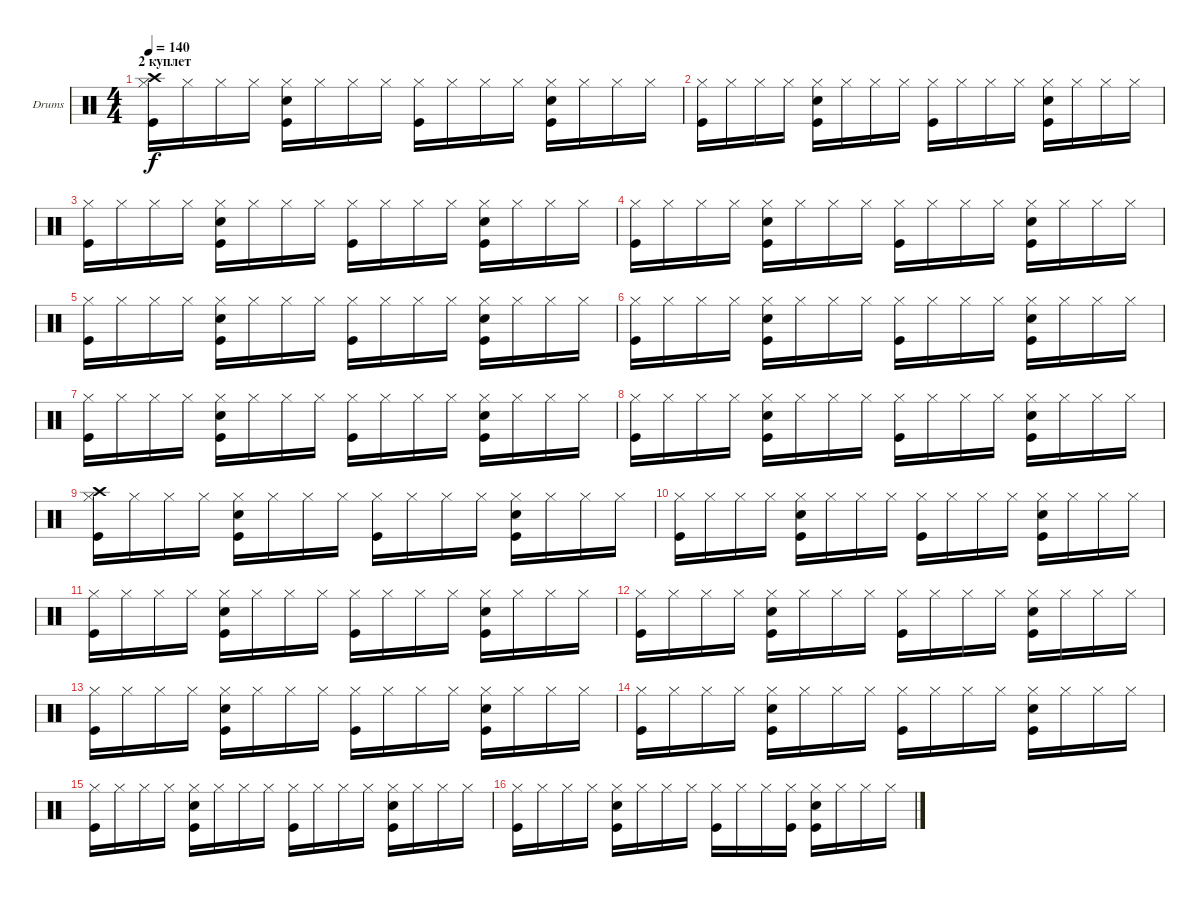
\defaultSystemsLayout 4
\bracketExtendMode groupsimilarinstruments
\firstSystemTrackNameOrientation horizontal
\otherSystemsTrackNameOrientation horizontal
\track ("Drumkit" "Drums") {instrument percussion}
\staff {score}
\articulation defaults
\ts (4 4)
\section ("" "2 куплет")
\tempo 140
\clef neutral
\ks c
("Hi-Hat (closed)" "Kick (hit)" "Crash high (hit)").16{dy f} "Hi-Hat (closed)".16 "Hi-Hat (closed)".16 "Hi-Hat (closed)".16 ("Hi-Hat (closed)" "Kick (hit)" "Snare (hit) 2").16 "Hi-Hat (closed)".16 "Hi-Hat (closed)".16 "Hi-Hat (closed)".16 ("Hi-Hat (closed)" "Kick (hit)").16 "Hi-Hat (closed)".16 "Hi-Hat (closed)".16 "Hi-Hat (closed)".16 ("Hi-Hat (closed)" "Kick (hit)" "Snare (hit) 2").16 "Hi-Hat (closed)".16 "Hi-Hat (closed)".16 "Hi-Hat (closed)".16 |
("Hi-Hat (closed)" "Kick (hit)").16 "Hi-Hat (closed)".16 "Hi-Hat (closed)".16 "Hi-Hat (closed)".16 ("Hi-Hat (closed)" "Kick (hit)" "Snare (hit) 2").16 "Hi-Hat (closed)".16 "Hi-Hat (closed)".16 "Hi-Hat (closed)".16 ("Hi-Hat (closed)" "Kick (hit)").16 "Hi-Hat (closed)".16 "Hi-Hat (closed)".16 "Hi-Hat (closed)".16 ("Hi-Hat (closed)" "Kick (hit)" "Snare (hit) 2").16 "Hi-Hat (closed)".16 "Hi-Hat (closed)".16 "Hi-Hat (closed)".16 |
("Hi-Hat (closed)" "Kick (hit)").16 "Hi-Hat (closed)".16 "Hi-Hat (closed)".16 "Hi-Hat (closed)".16 ("Hi-Hat (closed)" "Kick (hit)" "Snare (hit) 2").16 "Hi-Hat (closed)".16 "Hi-Hat (closed)".16 "Hi-Hat (closed)".16 ("Hi-Hat (closed)" "Kick (hit)").16 "Hi-Hat (closed)".16 "Hi-Hat (closed)".16 "Hi-Hat (closed)".16 ("Hi-Hat (closed)" "Kick (hit)" "Snare (hit) 2").16 "Hi-Hat (closed)".16 "Hi-Hat (closed)".16 "Hi-Hat (closed)".16 |
("Hi-Hat (closed)" "Kick (hit)").16 "Hi-Hat (closed)".16 "Hi-Hat (closed)".16 "Hi-Hat (closed)".16 ("Hi-Hat (closed)" "Kick (hit)" "Snare (hit) 2").16 "Hi-Hat (closed)".16 "Hi-Hat (closed)".16 "Hi-Hat (closed)".16 ("Hi-Hat (closed)" "Kick (hit)").16 "Hi-Hat (closed)".16 "Hi-Hat (closed)".16 "Hi-Hat (closed)".16 ("Hi-Hat (closed)" "Kick (hit)" "Snare (hit) 2").16 "Hi-Hat (closed)".16 "Hi-Hat (closed)".16 "Hi-Hat (closed)".16 |
("Hi-Hat (closed)" "Kick (hit)").16 "Hi-Hat (closed)".16 "Hi-Hat (closed)".16 "Hi-Hat (closed)".16 ("Hi-Hat (closed)" "Kick (hit)" "Snare (hit) 2").16 "Hi-Hat (closed)".16 "Hi-Hat (closed)".16 "Hi-Hat (closed)".16 ("Hi-Hat (closed)" "Kick (hit)").16 "Hi-Hat (closed)".16 "Hi-Hat (closed)".16 "Hi-Hat (closed)".16 ("Hi-Hat (closed)" "Kick (hit)" "Snare (hit) 2").16 "Hi-Hat (closed)".16 "Hi-Hat (closed)".16 "Hi-Hat (closed)".16 |
("Hi-Hat (closed)" "Kick (hit)").16 "Hi-Hat (closed)".16 "Hi-Hat (closed)".16 "Hi-Hat (closed)".16 ("Hi-Hat (closed)" "Kick (hit)" "Snare (hit) 2").16 "Hi-Hat (closed)".16 "Hi-Hat (closed)".16 "Hi-Hat (closed)".16 ("Hi-Hat (closed)" "Kick (hit)").16 "Hi-Hat (closed)".16 "Hi-Hat (closed)".16 "Hi-Hat (closed)".16 ("Hi-Hat (closed)" "Kick (hit)" "Snare (hit) 2").16 "Hi-Hat (closed)".16 "Hi-Hat (closed)".16 "Hi-Hat (closed)".16 |
("Hi-Hat (closed)" "Kick (hit)").16 "Hi-Hat (closed)".16 "Hi-Hat (closed)".16 "Hi-Hat (closed)".16 ("Hi-Hat (closed)" "Kick (hit)" "Snare (hit) 2").16 "Hi-Hat (closed)".16 "Hi-Hat (closed)".16 "Hi-Hat (closed)".16 ("Hi-Hat (closed)" "Kick (hit)").16 "Hi-Hat (closed)".16 "Hi-Hat (closed)".16 "Hi-Hat (closed)".16 ("Hi-Hat (closed)" "Kick (hit)" "Snare (hit) 2").16 "Hi-Hat (closed)".16 "Hi-Hat (closed)".16 "Hi-Hat (closed)".16 |
("Hi-Hat (closed)" "Kick (hit)").16 "Hi-Hat (closed)".16 "Hi-Hat (closed)".16 "Hi-Hat (closed)".16 ("Hi-Hat (closed)" "Kick (hit)" "Snare (hit) 2").16 "Hi-Hat (closed)".16 "Hi-Hat (closed)".16 "Hi-Hat (closed)".16 ("Hi-Hat (closed)" "Kick (hit)").16 "Hi-Hat (closed)".16 "Hi-Hat (closed)".16 "Hi-Hat (closed)".16 ("Hi-Hat (closed)" "Kick (hit)" "Snare (hit) 2").16 "Hi-Hat (closed)".16 "Hi-Hat (closed)".16 "Hi-Hat (closed)".16 |
("Hi-Hat (closed)" "Kick (hit)" "Crash high (hit)").16 "Hi-Hat (closed)".16 "Hi-Hat (closed)".16 "Hi-Hat (closed)".16 ("Hi-Hat (closed)" "Kick (hit)" "Snare (hit) 2").16 "Hi-Hat (closed)".16 "Hi-Hat (closed)".16 "Hi-Hat (closed)".16 ("Hi-Hat (closed)" "Kick (hit)").16 "Hi-Hat (closed)".16 "Hi-Hat (closed)".16 "Hi-Hat (closed)".16 ("Hi-Hat (closed)" "Kick (hit)" "Snare (hit) 2").16 "Hi-Hat (closed)".16 "Hi-Hat (closed)".16 "Hi-Hat (closed)".16 |
("Hi-Hat (closed)" "Kick (hit)").16 "Hi-Hat (closed)".16 "Hi-Hat (closed)".16 "Hi-Hat (closed)".16 ("Hi-Hat (closed)" "Kick (hit)" "Snare (hit) 2").16 "Hi-Hat (closed)".16 "Hi-Hat (closed)".16 "Hi-Hat (closed)".16 ("Hi-Hat (closed)" "Kick (hit)").16 "Hi-Hat (closed)".16 "Hi-Hat (closed)".16 "Hi-Hat (closed)".16 ("Hi-Hat (closed)" "Kick (hit)" "Snare (hit) 2").16 "Hi-Hat (closed)".16 "Hi-Hat (closed)".16 "Hi-Hat (closed)".16 |
("Hi-Hat (closed)" "Kick (hit)").16 "Hi-Hat (closed)".16 "Hi-Hat (closed)".16 "Hi-Hat (closed)".16 ("Hi-Hat (closed)" "Kick (hit)" "Snare (hit) 2").16 "Hi-Hat (closed)".16 "Hi-Hat (closed)".16 "Hi-Hat (closed)".16 ("Hi-Hat (closed)" "Kick (hit)").16 "Hi-Hat (closed)".16 "Hi-Hat (closed)".16 "Hi-Hat (closed)".16 ("Hi-Hat (closed)" "Kick (hit)" "Snare (hit) 2").16 "Hi-Hat (closed)".16 "Hi-Hat (closed)".16 "Hi-Hat (closed)".16 |
("Hi-Hat (closed)" "Kick (hit)").16 "Hi-Hat (closed)".16 "Hi-Hat (closed)".16 "Hi-Hat (closed)".16 ("Hi-Hat (closed)" "Kick (hit)" "Snare (hit) 2").16 "Hi-Hat (closed)".16 "Hi-Hat (closed)".16 "Hi-Hat (closed)".16 ("Hi-Hat (closed)" "Kick (hit)").16 "Hi-Hat (closed)".16 "Hi-Hat (closed)".16 "Hi-Hat (closed)".16 ("Hi-Hat (closed)" "Kick (hit)" "Snare (hit) 2").16 "Hi-Hat (closed)".16 "Hi-Hat (closed)".16 "Hi-Hat (closed)".16 |
("Hi-Hat (closed)" "Kick (hit)").16 "Hi-Hat (closed)".16 "Hi-Hat (closed)".16 "Hi-Hat (closed)".16 ("Hi-Hat (closed)" "Kick (hit)" "Snare (hit) 2").16 "Hi-Hat (closed)".16 "Hi-Hat (closed)".16 "Hi-Hat (closed)".16 ("Hi-Hat (closed)" "Kick (hit)").16 "Hi-Hat (closed)".16 "Hi-Hat (closed)".16 "Hi-Hat (closed)".16 ("Hi-Hat (closed)" "Kick (hit)" "Snare (hit) 2").16 "Hi-Hat (closed)".16 "Hi-Hat (closed)".16 "Hi-Hat (closed)".16 |
("Hi-Hat (closed)" "Kick (hit)").16 "Hi-Hat (closed)".16 "Hi-Hat (closed)".16 "Hi-Hat (closed)".16 ("Hi-Hat (closed)" "Kick (hit)" "Snare (hit) 2").16 "Hi-Hat (closed)".16 "Hi-Hat (closed)".16 "Hi-Hat (closed)".16 ("Hi-Hat (closed)" "Kick (hit)").16 "Hi-Hat (closed)".16 "Hi-Hat (closed)".16 "Hi-Hat (closed)".16 ("Hi-Hat (closed)" "Kick (hit)" "Snare (hit) 2").16 "Hi-Hat (closed)".16 "Hi-Hat (closed)".16 "Hi-Hat (closed)".16 |
("Hi-Hat (closed)" "Kick (hit)").16 "Hi-Hat (closed)".16 "Hi-Hat (closed)".16 "Hi-Hat (closed)".16 ("Hi-Hat (closed)" "Kick (hit)" "Snare (hit) 2").16 "Hi-Hat (closed)".16 "Hi-Hat (closed)".16 "Hi-Hat (closed)".16 ("Hi-Hat (closed)" "Kick (hit)").16 "Hi-Hat (closed)".16 "Hi-Hat (closed)".16 "Hi-Hat (closed)".16 ("Hi-Hat (closed)" "Kick (hit)" "Snare (hit) 2").16 "Hi-Hat (closed)".16 "Hi-Hat (closed)".16 "Hi-Hat (closed)".16 |
("Hi-Hat (closed)" "Kick (hit)").16 "Hi-Hat (closed)".16 "Hi-Hat (closed)".16 "Hi-Hat (closed)".16 ("Hi-Hat (closed)" "Kick (hit)" "Snare (hit) 2").16 "Hi-Hat (closed)".16 "Hi-Hat (closed)".16 "Hi-Hat (closed)".16 ("Hi-Hat (closed)" "Kick (hit)").16 "Hi-Hat (closed)".16 "Hi-Hat (closed)".16 ("Hi-Hat (closed)" "Kick (hit)").16 ("Hi-Hat (closed)" "Kick (hit)" "Snare (hit) 2").16 "Hi-Hat (closed)".16 "Hi-Hat (closed)".16 "Hi-Hat (closed)".16
